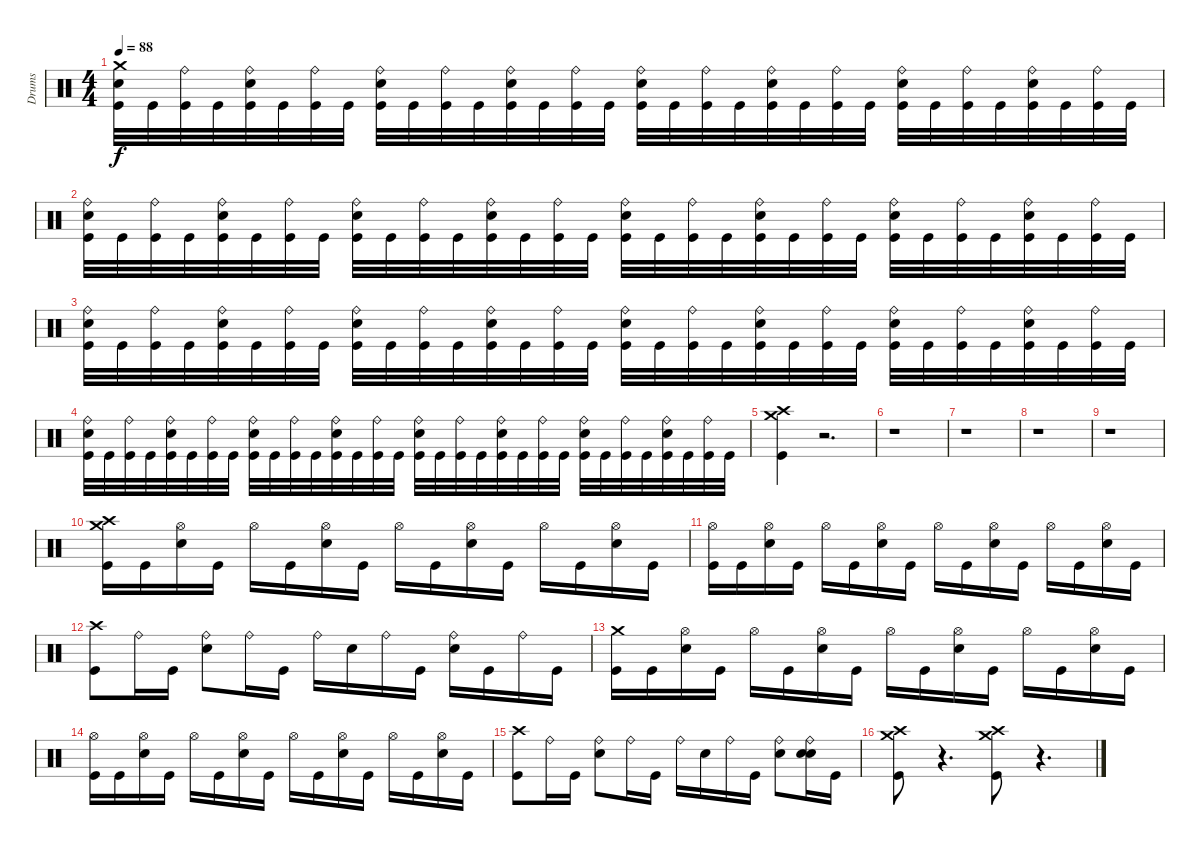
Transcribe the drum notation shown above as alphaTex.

\track ("Drums" "Drums") {instrument percussion}
\staff {score}
\articulation defaults
\ts (4 4)
\tempo 88
\clef neutral
\ks c
("Crash medium (hit)" "Snare (hit) 2" "Kick (hit)").32{dy f} "Kick (hit)".32 ("Ride (bell)" "Kick (hit)").32 "Kick (hit)".32 ("Ride (bell)" "Snare (hit) 2" "Kick (hit)").32 "Kick (hit)".32 ("Ride (bell)" "Kick (hit)").32 "Kick (hit)".32 ("Ride (bell)" "Snare (hit) 2" "Kick (hit)").32 "Kick (hit)".32 ("Ride (bell)" "Kick (hit)").32 "Kick (hit)".32 ("Ride (bell)" "Snare (hit) 2" "Kick (hit)").32 "Kick (hit)".32 ("Ride (bell)" "Kick (hit)").32 "Kick (hit)".32 ("Ride (bell)" "Snare (hit) 2" "Kick (hit)").32 "Kick (hit)".32 ("Ride (bell)" "Kick (hit)").32 "Kick (hit)".32 ("Ride (bell)" "Snare (hit) 2" "Kick (hit)").32 "Kick (hit)".32 ("Ride (bell)" "Kick (hit)").32 "Kick (hit)".32 ("Ride (bell)" "Snare (hit) 2" "Kick (hit)").32 "Kick (hit)".32 ("Ride (bell)" "Kick (hit)").32 "Kick (hit)".32 ("Ride (bell)" "Snare (hit) 2" "Kick (hit)").32 "Kick (hit)".32 ("Ride (bell)" "Kick (hit)").32 "Kick (hit)".32 |
("Ride (bell)" "Snare (hit) 2" "Kick (hit)").32 "Kick (hit)".32 ("Ride (bell)" "Kick (hit)").32 "Kick (hit)".32 ("Ride (bell)" "Snare (hit) 2" "Kick (hit)").32 "Kick (hit)".32 ("Ride (bell)" "Kick (hit)").32 "Kick (hit)".32 ("Ride (bell)" "Snare (hit) 2" "Kick (hit)").32 "Kick (hit)".32 ("Ride (bell)" "Kick (hit)").32 "Kick (hit)".32 ("Ride (bell)" "Snare (hit) 2" "Kick (hit)").32 "Kick (hit)".32 ("Ride (bell)" "Kick (hit)").32 "Kick (hit)".32 ("Ride (bell)" "Snare (hit) 2" "Kick (hit)").32 "Kick (hit)".32 ("Ride (bell)" "Kick (hit)").32 "Kick (hit)".32 ("Ride (bell)" "Snare (hit) 2" "Kick (hit)").32 "Kick (hit)".32 ("Ride (bell)" "Kick (hit)").32 "Kick (hit)".32 ("Ride (bell)" "Snare (hit) 2" "Kick (hit)").32 "Kick (hit)".32 ("Ride (bell)" "Kick (hit)").32 "Kick (hit)".32 ("Ride (bell)" "Snare (hit) 2" "Kick (hit)").32 "Kick (hit)".32 ("Ride (bell)" "Kick (hit)").32 "Kick (hit)".32 |
("Ride (bell)" "Snare (hit) 2" "Kick (hit)").32 "Kick (hit)".32 ("Ride (bell)" "Kick (hit)").32 "Kick (hit)".32 ("Ride (bell)" "Snare (hit) 2" "Kick (hit)").32 "Kick (hit)".32 ("Ride (bell)" "Kick (hit)").32 "Kick (hit)".32 ("Ride (bell)" "Snare (hit) 2" "Kick (hit)").32 "Kick (hit)".32 ("Ride (bell)" "Kick (hit)").32 "Kick (hit)".32 ("Ride (bell)" "Snare (hit) 2" "Kick (hit)").32 "Kick (hit)".32 ("Ride (bell)" "Kick (hit)").32 "Kick (hit)".32 ("Ride (bell)" "Snare (hit) 2" "Kick (hit)").32 "Kick (hit)".32 ("Ride (bell)" "Kick (hit)").32 "Kick (hit)".32 ("Ride (bell)" "Snare (hit) 2" "Kick (hit)").32 "Kick (hit)".32 ("Ride (bell)" "Kick (hit)").32 "Kick (hit)".32 ("Ride (bell)" "Snare (hit) 2" "Kick (hit)").32 "Kick (hit)".32 ("Ride (bell)" "Kick (hit)").32 "Kick (hit)".32 ("Ride (bell)" "Snare (hit) 2" "Kick (hit)").32 "Kick (hit)".32 ("Ride (bell)" "Kick (hit)").32 "Kick (hit)".32 |
("Ride (bell)" "Snare (hit) 2" "Kick (hit)").32 "Kick (hit)".32 ("Ride (bell)" "Kick (hit)").32 "Kick (hit)".32 ("Ride (bell)" "Snare (hit) 2" "Kick (hit)").32 "Kick (hit)".32 ("Ride (bell)" "Kick (hit)").32 "Kick (hit)".32 ("Ride (bell)" "Snare (hit) 2" "Kick (hit)").32 "Kick (hit)".32 ("Ride (bell)" "Kick (hit)").32 "Kick (hit)".32 ("Ride (bell)" "Snare (hit) 2" "Kick (hit)").32 "Kick (hit)".32 ("Ride (bell)" "Kick (hit)").32 "Kick (hit)".32 ("Ride (bell)" "Snare (hit) 2" "Kick (hit)").32 "Kick (hit)".32 ("Ride (bell)" "Kick (hit)").32 "Kick (hit)".32 ("Ride (bell)" "Snare (hit) 2" "Kick (hit)").32 "Kick (hit)".32 ("Ride (bell)" "Kick (hit)").32 "Kick (hit)".32 ("Ride (bell)" "Snare (hit) 2" "Kick (hit)").32 "Kick (hit)".32 ("Ride (bell)" "Kick (hit)").32 "Kick (hit)".32 ("Ride (bell)" "Snare (hit) 2" "Kick (hit)").32 "Kick (hit)".32 ("Ride (bell)" "Kick (hit)").32 "Kick (hit)".32 |
("Crash high (hit)" "Crash medium (hit)" "Kick (hit)").4 r.2{d} |
r.1 |
r.1 |
r.1 |
r.1 |
("Crash medium (hit)" "Crash high (hit)" "Kick (hit)").16 "Kick (hit)".16 ("Snare (hit) 2" "Hi-Hat (open)").16 "Kick (hit)".16 "Hi-Hat (open)".16 "Kick (hit)".16 ("Snare (hit) 2" "Hi-Hat (open)").16 "Kick (hit)".16 "Hi-Hat (open)".16 "Kick (hit)".16 ("Snare (hit) 2" "Hi-Hat (open)").16 "Kick (hit)".16 "Hi-Hat (open)".16 "Kick (hit)".16 ("Snare (hit) 2" "Hi-Hat (open)").16 "Kick (hit)".16 |
("Hi-Hat (open)" "Kick (hit)").16 "Kick (hit)".16 ("Snare (hit) 2" "Hi-Hat (open)").16 "Kick (hit)".16 "Hi-Hat (open)".16 "Kick (hit)".16 ("Snare (hit) 2" "Hi-Hat (open)").16 "Kick (hit)".16 "Hi-Hat (open)".16 "Kick (hit)".16 ("Snare (hit) 2" "Hi-Hat (open)").16 "Kick (hit)".16 "Hi-Hat (open)".16 "Kick (hit)".16 ("Snare (hit) 2" "Hi-Hat (open)").16 "Kick (hit)".16 |
("Crash high (hit)" "Kick (hit)").8 "Ride (bell)".16 "Kick (hit)".16 ("Snare (hit) 2" "Ride (bell)").8 "Ride (bell)".16 "Kick (hit)".16 "Ride (bell)".16 "Snare (hit) 2".16 "Ride (bell)".16 "Kick (hit)".16 ("Snare (hit) 2" "Ride (bell)").16 "Kick (hit)".16 "Ride (bell)".16 "Kick (hit)".16 |
("Crash medium (hit)" "Kick (hit)").16 "Kick (hit)".16 ("Snare (hit) 2" "Hi-Hat (open)").16 "Kick (hit)".16 "Hi-Hat (open)".16 "Kick (hit)".16 ("Snare (hit) 2" "Hi-Hat (open)").16 "Kick (hit)".16 "Hi-Hat (open)".16 "Kick (hit)".16 ("Snare (hit) 2" "Hi-Hat (open)").16 "Kick (hit)".16 "Hi-Hat (open)".16 "Kick (hit)".16 ("Snare (hit) 2" "Hi-Hat (open)").16 "Kick (hit)".16 |
("Hi-Hat (open)" "Kick (hit)").16 "Kick (hit)".16 ("Snare (hit) 2" "Hi-Hat (open)").16 "Kick (hit)".16 "Hi-Hat (open)".16 "Kick (hit)".16 ("Snare (hit) 2" "Hi-Hat (open)").16 "Kick (hit)".16 "Hi-Hat (open)".16 "Kick (hit)".16 ("Snare (hit) 2" "Hi-Hat (open)").16 "Kick (hit)".16 "Hi-Hat (open)".16 "Kick (hit)".16 ("Snare (hit) 2" "Hi-Hat (open)").16 "Kick (hit)".16 |
("Kick (hit)" "Crash high (hit)").8 "Ride (bell)".16 "Kick (hit)".16 ("Snare (hit) 2" "Ride (bell)").8 "Ride (bell)".16 "Kick (hit)".16 "Ride (bell)".16 "Snare (hit) 2".16 "Ride (bell)".16 "Kick (hit)".16 ("Snare (hit) 2" "Ride (bell)").8 ("Snare (hit) 2" "Snare (hit) 2" "Ride (bell)").16 "Kick (hit)".16 |
("Kick (hit)" "Crash high (hit)" "Crash medium (hit)").8 r.4{d} ("Kick (hit)" "Crash high (hit)" "Crash medium (hit)").8 r.4{d}
